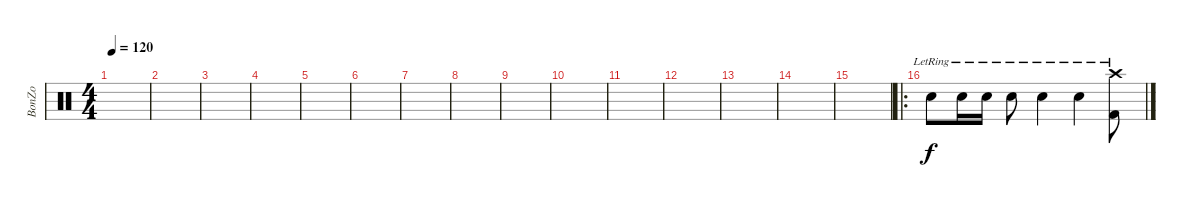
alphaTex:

\track ("BonZo" "BonZo") {instrument percussion}
\staff {score}
\articulation defaults
\ts (4 4)
\tempo 120
\clef neutral
\ks c
|
|
|
|
|
|
|
|
|
|
|
|
|
|
|
\ro "Electric Snare (hit)"{lr}.8 "Electric Snare (hit)"{lr}.16 "Electric Snare (hit)"{lr}.16 "Electric Snare (hit)"{lr}.8 "Electric Snare (hit)"{lr}.4 "Electric Snare (hit)"{lr}.4
("Kick (hit) 2"{lr} "Crash high (hit)"{lr}).8
